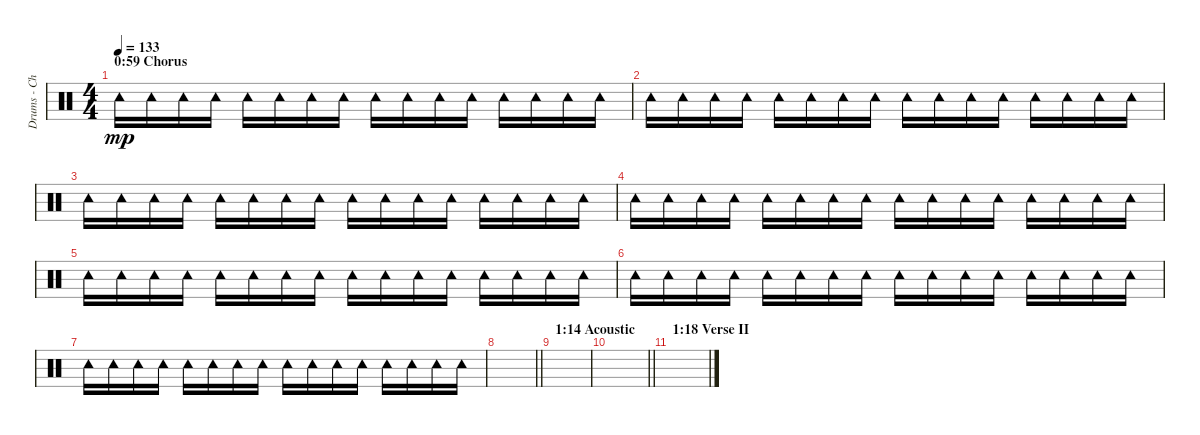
\track ("Drums - Chorus - Tambourine" "Drums - Ch") {instrument percussion}
\staff {score}
\articulation defaults
\ts (4 4)
\section ("" "0:59 Chorus")
\tempo 133
\clef neutral
\ks c "Tambourine (hit)".16{dy mp} "Tambourine (hit)".16 "Tambourine (hit)".16 "Tambourine (hit)".16 "Tambourine (hit)".16 "Tambourine (hit)".16 "Tambourine (hit)".16 "Tambourine (hit)".16 "Tambourine (hit)".16 "Tambourine (hit)".16 "Tambourine (hit)".16 "Tambourine (hit)".16 "Tambourine (hit)".16 "Tambourine (hit)".16 "Tambourine (hit)".16 "Tambourine (hit)".16
|
"Tambourine (hit)".16 "Tambourine (hit)".16 "Tambourine (hit)".16 "Tambourine (hit)".16 "Tambourine (hit)".16 "Tambourine (hit)".16 "Tambourine (hit)".16 "Tambourine (hit)".16 "Tambourine (hit)".16 "Tambourine (hit)".16 "Tambourine (hit)".16 "Tambourine (hit)".16 "Tambourine (hit)".16 "Tambourine (hit)".16 "Tambourine (hit)".16 "Tambourine (hit)".16 |
"Tambourine (hit)".16 "Tambourine (hit)".16 "Tambourine (hit)".16 "Tambourine (hit)".16 "Tambourine (hit)".16 "Tambourine (hit)".16 "Tambourine (hit)".16 "Tambourine (hit)".16 "Tambourine (hit)".16 "Tambourine (hit)".16 "Tambourine (hit)".16 "Tambourine (hit)".16 "Tambourine (hit)".16 "Tambourine (hit)".16 "Tambourine (hit)".16 "Tambourine (hit)".16 |
"Tambourine (hit)".16 "Tambourine (hit)".16 "Tambourine (hit)".16 "Tambourine (hit)".16 "Tambourine (hit)".16 "Tambourine (hit)".16 "Tambourine (hit)".16 "Tambourine (hit)".16 "Tambourine (hit)".16 "Tambourine (hit)".16 "Tambourine (hit)".16 "Tambourine (hit)".16 "Tambourine (hit)".16 "Tambourine (hit)".16 "Tambourine (hit)".16 "Tambourine (hit)".16 |
"Tambourine (hit)".16 "Tambourine (hit)".16 "Tambourine (hit)".16 "Tambourine (hit)".16 "Tambourine (hit)".16 "Tambourine (hit)".16 "Tambourine (hit)".16 "Tambourine (hit)".16 "Tambourine (hit)".16 "Tambourine (hit)".16 "Tambourine (hit)".16 "Tambourine (hit)".16 "Tambourine (hit)".16 "Tambourine (hit)".16 "Tambourine (hit)".16 "Tambourine (hit)".16 |
"Tambourine (hit)".16 "Tambourine (hit)".16 "Tambourine (hit)".16 "Tambourine (hit)".16 "Tambourine (hit)".16 "Tambourine (hit)".16 "Tambourine (hit)".16 "Tambourine (hit)".16 "Tambourine (hit)".16 "Tambourine (hit)".16 "Tambourine (hit)".16 "Tambourine (hit)".16 "Tambourine (hit)".16 "Tambourine (hit)".16 "Tambourine (hit)".16 "Tambourine (hit)".16 |
"Tambourine (hit)".16 "Tambourine (hit)".16 "Tambourine (hit)".16 "Tambourine (hit)".16 "Tambourine (hit)".16 "Tambourine (hit)".16 "Tambourine (hit)".16 "Tambourine (hit)".16 "Tambourine (hit)".16 "Tambourine (hit)".16 "Tambourine (hit)".16 "Tambourine (hit)".16 "Tambourine (hit)".16 "Tambourine (hit)".16 "Tambourine (hit)".16 "Tambourine (hit)".16 |
\barLineRight lightlight
|
\section ("" "1:14 Acoustic")
|
\barLineRight lightlight
|
\section ("" "1:18 Verse II")
